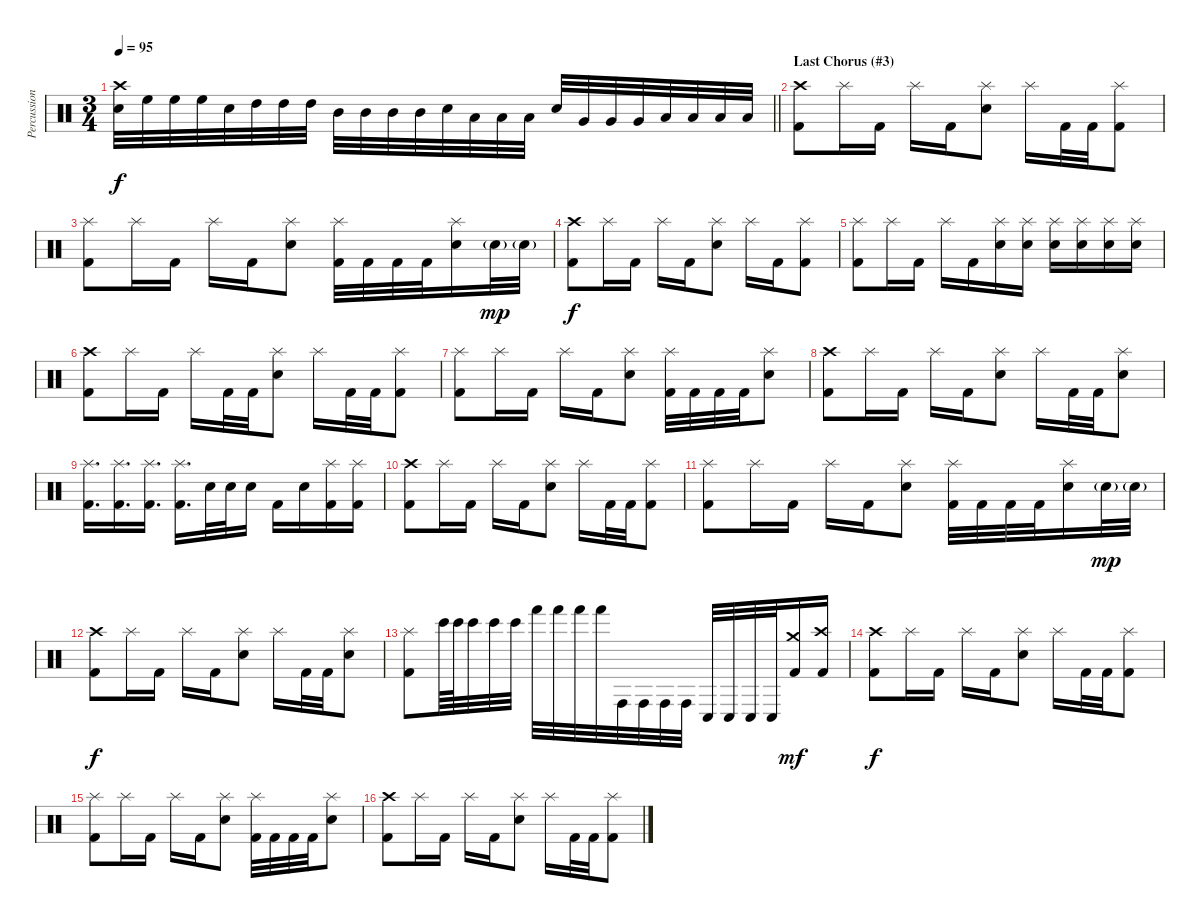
\track ("Percussion Mike" "Percussion") {instrument percussion}
\staff {score}
\articulation defaults
\ts (3 4)
\tempo 95
\clef neutral
\barLineRight lightlight
\ks c
("Crash high (hit)" "Snare (hit) 2").32{dy f} "High Floor Tom (hit)".32 "High Floor Tom (hit)".32 "High Floor Tom (hit)".32 "Snare (hit) 2".32 "High Tom (hit)".32 "High Tom (hit)".32 "High Tom (hit)".32 "Mid Tom (hit)".32 "Mid Tom (hit)".32 "Mid Tom (hit)".32 "Mid Tom (hit)".32 "Snare (hit) 2".32 "Low Tom (hit)".32 "Low Tom (hit)".32 "Low Tom (hit)".32 "Snare (hit) 2".32 "Very Low Tom (hit)".32 "Very Low Tom (hit)".32 "Very Low Tom (hit)".32 "Low Floor Tom (hit)".32 "Low Floor Tom (hit)".32 "Low Floor Tom (hit)".32 "Low Floor Tom (hit)".32 |
\section ("" "Last Chorus (#3)")
("Crash high (hit)" "Kick (hit) 2").8 "Splash (hit)".16 "Kick (hit) 2".16 "Splash (hit)".16 "Kick (hit) 2".16 ("Splash (hit)" "Snare (hit) 2").8 "Splash (hit)".16 "Kick (hit) 2".32 "Kick (hit) 2".32 ("Splash (hit)" "Kick (hit) 2").8 |
("Splash (hit)" "Kick (hit) 2").8 "Splash (hit)".16 "Kick (hit) 2".16 "Splash (hit)".16 "Kick (hit) 2".16 ("Splash (hit)" "Snare (hit) 2").8 ("Splash (hit)" "Kick (hit) 2").32 "Kick (hit) 2".32 "Kick (hit) 2".32 "Kick (hit) 2".32 ("Splash (hit)" "Snare (hit) 2").16 "Snare (hit) 2"{g}.32{dy mp} "Snare (hit) 2"{g}.32 |
("Crash high (hit)" "Kick (hit) 2").8{dy f} "Splash (hit)".16 "Kick (hit) 2".16 "Splash (hit)".16 "Kick (hit) 2".16 ("Splash (hit)" "Snare (hit) 2").8 "Splash (hit)".16 "Kick (hit) 2".16 ("Splash (hit)" "Kick (hit) 2").8 |
("Splash (hit)" "Kick (hit) 2").8 "Splash (hit)".16 "Kick (hit) 2".16 "Splash (hit)".16 "Kick (hit) 2".16 ("Splash (hit)" "Snare (hit) 2").16 ("Splash (hit)" "Snare (hit) 2").16 ("Splash (hit)" "Snare (hit) 2").16 ("Splash (hit)" "Snare (hit) 2").16 ("Splash (hit)" "Snare (hit) 2").16 ("Splash (hit)" "Snare (hit) 2").16 |
("Crash high (hit)" "Kick (hit) 2").8 "Splash (hit)".16 "Kick (hit) 2".16 "Splash (hit)".16 "Kick (hit) 2".32 "Kick (hit) 2".32 ("Splash (hit)" "Snare (hit) 2").8 "Splash (hit)".16 "Kick (hit) 2".32 "Kick (hit) 2".32 ("Splash (hit)" "Kick (hit) 2").8 |
("Splash (hit)" "Kick (hit) 2").8 "Splash (hit)".16 "Kick (hit) 2".16 "Splash (hit)".16 "Kick (hit) 2".16 ("Splash (hit)" "Snare (hit) 2").8 ("Splash (hit)" "Kick (hit) 2").32 "Kick (hit) 2".32 "Kick (hit) 2".32 "Kick (hit) 2".32 ("Splash (hit)" "Snare (hit) 2").8 |
("Crash high (hit)" "Kick (hit) 2").8 "Splash (hit)".16 "Kick (hit) 2".16 "Splash (hit)".16 "Kick (hit) 2".16 ("Splash (hit)" "Snare (hit) 2").8 "Splash (hit)".16 "Kick (hit) 2".32 "Kick (hit) 2".32 ("Splash (hit)" "Snare (hit) 2").8 |
("Splash (hit)" "Kick (hit) 2").16{d} ("Splash (hit)" "Kick (hit) 2").16{d} ("Splash (hit)" "Kick (hit) 2").16{d} ("Splash (hit)" "Kick (hit) 2").16{d} "Snare (hit) 2".32 "Snare (hit) 2".32 "Snare (hit) 2".16 "Kick (hit) 2".16 "Snare (hit) 2".16 ("Splash (hit)" "Kick (hit) 2").16 ("Splash (hit)" "Kick (hit) 2").16 |
("Crash high (hit)" "Kick (hit) 2").8 "Splash (hit)".16 "Kick (hit) 2".16 "Splash (hit)".16 "Kick (hit) 2".16 ("Splash (hit)" "Snare (hit) 2").8 "Splash (hit)".16 "Kick (hit) 2".32 "Kick (hit) 2".32 ("Splash (hit)" "Kick (hit) 2").8 |
("Splash (hit)" "Kick (hit) 2").8 "Splash (hit)".16 "Kick (hit) 2".16 "Splash (hit)".16 "Kick (hit) 2".16 ("Splash (hit)" "Snare (hit) 2").8 ("Splash (hit)" "Kick (hit) 2").32 "Kick (hit) 2".32 "Kick (hit) 2".32 "Kick (hit) 2".32 ("Splash (hit)" "Snare (hit) 2").16 "Snare (hit) 2"{g}.32{dy mp} "Snare (hit) 2"{g}.32 |
("Crash high (hit)" "Kick (hit) 2").8{dy f} "Splash (hit)".16 "Kick (hit) 2".16 "Splash (hit)".16 "Kick (hit) 2".16 ("Splash (hit)" "Snare (hit) 2").8 "Splash (hit)".16 "Kick (hit) 2".32 "Kick (hit) 2".32 ("Splash (hit)" "Snare (hit) 2").8 |
("Splash (hit)" "Kick (hit) 2").8 "Bongo High (hit)".64 "Bongo High (hit)".64 "Bongo High (hit)".32 "Bongo High (hit)".32 "Bongo High (hit)".32 "Hand (hit)".32 "Hand (hit)".32 "Hand (hit)".32 "Hand (hit)".32 "Conga high (hit)".32 "Conga high (hit)".32 "Conga high (hit)".32 "Conga high (hit)".32 "Conga low (hit)".32 "Conga low (hit)".32 "Conga low (hit)".32 "Conga low (hit)".32 ("Crash medium (hit)" "Kick (hit) 2").16{dy mf} ("Crash high (hit)" "Kick (hit) 2").16 |
("Crash high (hit)" "Kick (hit) 2").8{dy f} "Splash (hit)".16 "Kick (hit) 2".16 "Splash (hit)".16 "Kick (hit) 2".16 ("Splash (hit)" "Snare (hit) 2").8 "Splash (hit)".16 "Kick (hit) 2".32 "Kick (hit) 2".32 ("Splash (hit)" "Kick (hit) 2").8 |
("Splash (hit)" "Kick (hit) 2").8 "Splash (hit)".16 "Kick (hit) 2".16 "Splash (hit)".16 "Kick (hit) 2".16 ("Splash (hit)" "Snare (hit) 2").8 ("Splash (hit)" "Kick (hit) 2").32 "Kick (hit) 2".32 "Kick (hit) 2".32 "Kick (hit) 2".32 ("Splash (hit)" "Snare (hit) 2").8 |
("Crash high (hit)" "Kick (hit) 2").8 "Splash (hit)".16 "Kick (hit) 2".16 "Splash (hit)".16 "Kick (hit) 2".16 ("Splash (hit)" "Snare (hit) 2").8 "Splash (hit)".16 "Kick (hit) 2".32 "Kick (hit) 2".32 ("Splash (hit)" "Kick (hit) 2").8
